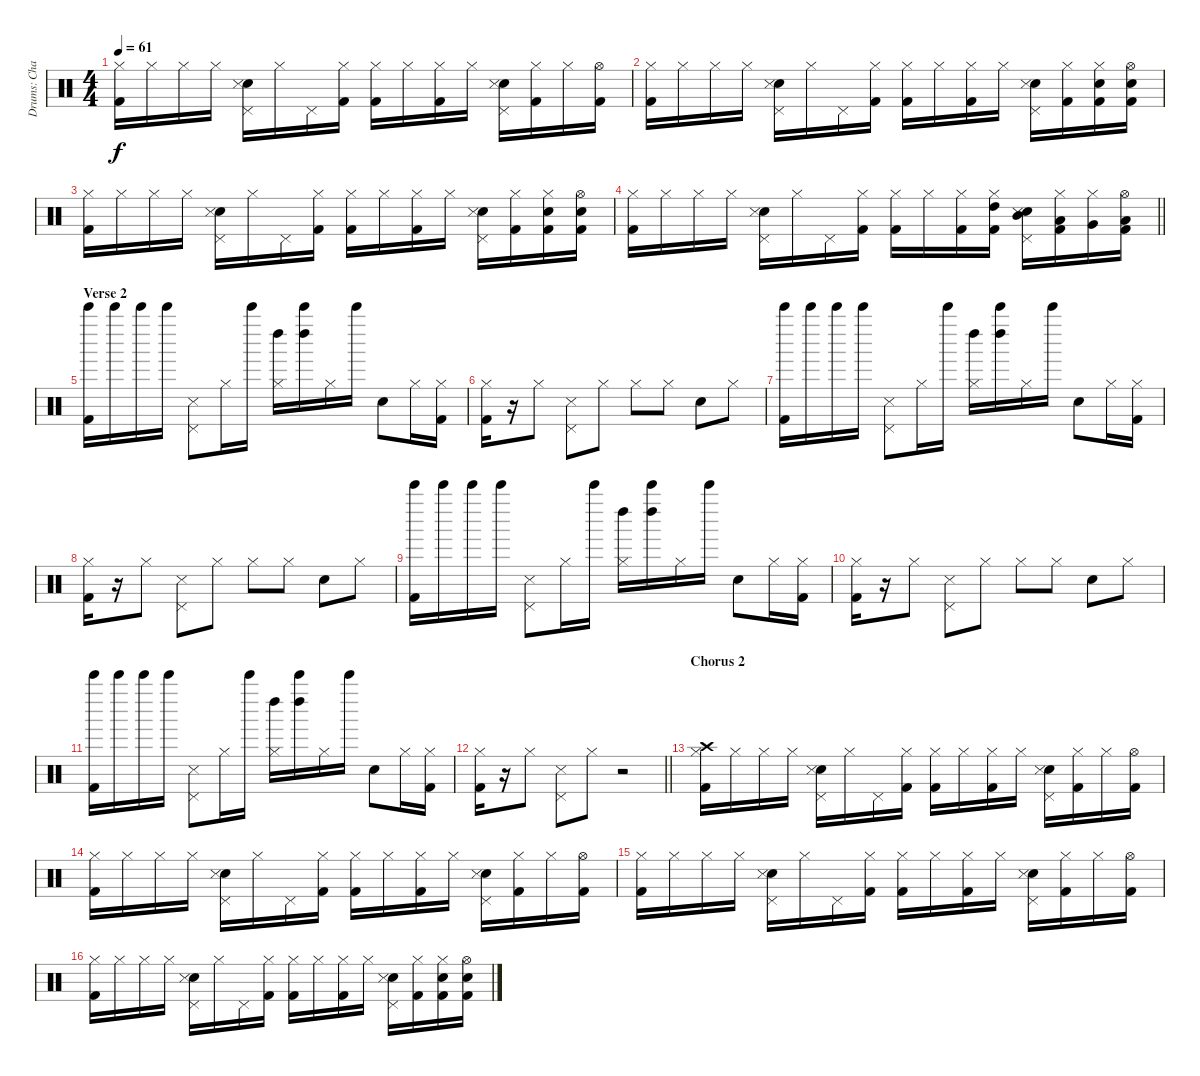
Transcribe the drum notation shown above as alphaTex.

\track ("Drums: Charlie Sierra" "Drums: Cha") {instrument percussion}
\staff {score}
\articulation defaults
\ts (4 4)
\tempo 61
\clef neutral
\ks c
("Hi-Hat (closed)" "Kick (hit) 2").16{dy f} "Hi-Hat (closed)".16 "Hi-Hat (closed)".16 "Hi-Hat (closed)".16 ("Pedal Hi-Hat (hit)" "Snare (hit) 2" "Snare (side stick) 3").16 "Hi-Hat (closed)".16 "Pedal Hi-Hat (hit)".16 ("Hi-Hat (closed)" "Kick (hit) 2").16 ("Hi-Hat (closed)" "Kick (hit) 2").16 "Hi-Hat (closed)".16 ("Hi-Hat (closed)" "Kick (hit) 2").16 "Hi-Hat (closed)".16 ("Pedal Hi-Hat (hit)" "Snare (hit) 2" "Snare (side stick) 3").16 ("Hi-Hat (closed)" "Kick (hit) 2").16 "Hi-Hat (closed)".16 ("Hi-Hat (open)" "Kick (hit) 2").16 |
("Hi-Hat (closed)" "Kick (hit) 2").16 "Hi-Hat (closed)".16 "Hi-Hat (closed)".16 "Hi-Hat (closed)".16 ("Pedal Hi-Hat (hit)" "Snare (hit) 2" "Snare (side stick) 3").16 "Hi-Hat (closed)".16 "Pedal Hi-Hat (hit)".16 ("Hi-Hat (closed)" "Kick (hit) 2").16 ("Hi-Hat (closed)" "Kick (hit) 2").16 "Hi-Hat (closed)".16 ("Hi-Hat (closed)" "Kick (hit) 2").16 "Hi-Hat (closed)".16 ("Pedal Hi-Hat (hit)" "Snare (hit) 2" "Snare (side stick) 3").16 ("Hi-Hat (closed)" "Kick (hit) 2").16 ("Hi-Hat (closed)" "Snare (hit) 2" "Kick (hit) 2").16 ("Hi-Hat (open)" "Snare (hit) 2" "Kick (hit) 2").16 |
("Hi-Hat (closed)" "Kick (hit) 2").16 "Hi-Hat (closed)".16 "Hi-Hat (closed)".16 "Hi-Hat (closed)".16 ("Pedal Hi-Hat (hit)" "Snare (hit) 2" "Snare (side stick) 3").16 "Hi-Hat (closed)".16 "Pedal Hi-Hat (hit)".16 ("Hi-Hat (closed)" "Kick (hit) 2").16 ("Hi-Hat (closed)" "Kick (hit) 2").16 "Hi-Hat (closed)".16 ("Hi-Hat (closed)" "Kick (hit) 2").16 "Hi-Hat (closed)".16 ("Pedal Hi-Hat (hit)" "Snare (hit) 2" "Snare (side stick) 3").16 ("Hi-Hat (closed)" "Kick (hit) 2").16 ("Hi-Hat (closed)" "Snare (hit) 2" "Kick (hit) 2").16 ("Hi-Hat (open)" "Snare (hit) 2" "Kick (hit) 2").16 |
\barLineRight lightlight
("Hi-Hat (closed)" "Kick (hit) 2").16 "Hi-Hat (closed)".16 "Hi-Hat (closed)".16 "Hi-Hat (closed)".16 ("Pedal Hi-Hat (hit)" "Snare (hit) 2" "Snare (side stick) 3").16 "Hi-Hat (closed)".16 "Pedal Hi-Hat (hit)".16 ("Hi-Hat (closed)" "Kick (hit) 2").16 ("Hi-Hat (closed)" "Kick (hit) 2").16 "Hi-Hat (closed)".16 ("Hi-Hat (closed)" "Kick (hit) 2").16 ("Hi-Hat (closed)" "High Tom (hit)" "Kick (hit) 2").16 ("Pedal Hi-Hat (hit)" "Snare (hit) 2" "Mid Tom (hit)" "Snare (side stick) 3").16 ("Hi-Hat (closed)" "Low Tom (hit)" "Kick (hit) 2").16 ("Hi-Hat (closed)" "Very Low Tom (hit)").16 ("Hi-Hat (open)" "Low Floor Tom (hit)" "Kick (hit) 2").16 |
\section ("" "Verse 2")
("Bell Tree (hit)" "Kick (hit) 2").16 "Bell Tree (hit)".16 "Bell Tree (hit)".16 "Bell Tree (hit)".16 ("Pedal Hi-Hat (hit)" "Snare (side stick) 3").8 "Hi-Hat (closed)".16 "Bell Tree (hit)".16 ("Hi-Hat (closed)" "Left Maraca (hit)").16 ("Bell Tree (hit)" "Left Maraca (hit)").16 "Hi-Hat (closed)".16 "Bell Tree (hit)".16 "Snare (hit) 2".8 "Hi-Hat (closed)".16 ("Hi-Hat (closed)" "Kick (hit) 2").16 |
("Hi-Hat (closed)" "Kick (hit) 2").16 r.16 "Hi-Hat (closed)".8 ("Pedal Hi-Hat (hit)" "Snare (side stick) 3").8 "Hi-Hat (closed)".8 "Hi-Hat (closed)".8 "Hi-Hat (closed)".8 "Snare (hit) 2".8 "Hi-Hat (closed)".8 |
("Bell Tree (hit)" "Kick (hit) 2").16 "Bell Tree (hit)".16 "Bell Tree (hit)".16 "Bell Tree (hit)".16 ("Pedal Hi-Hat (hit)" "Snare (side stick) 3").8 "Hi-Hat (closed)".16 "Bell Tree (hit)".16 ("Hi-Hat (closed)" "Left Maraca (hit)").16 ("Bell Tree (hit)" "Left Maraca (hit)").16 "Hi-Hat (closed)".16 "Bell Tree (hit)".16 "Snare (hit) 2".8 "Hi-Hat (closed)".16 ("Hi-Hat (closed)" "Kick (hit) 2").16 |
("Hi-Hat (closed)" "Kick (hit) 2").16 r.16 "Hi-Hat (closed)".8 ("Pedal Hi-Hat (hit)" "Snare (side stick) 3").8 "Hi-Hat (closed)".8 "Hi-Hat (closed)".8 "Hi-Hat (closed)".8 "Snare (hit) 2".8 "Hi-Hat (closed)".8 |
("Bell Tree (hit)" "Kick (hit) 2").16 "Bell Tree (hit)".16 "Bell Tree (hit)".16 "Bell Tree (hit)".16 ("Pedal Hi-Hat (hit)" "Snare (side stick) 3").8 "Hi-Hat (closed)".16 "Bell Tree (hit)".16 ("Hi-Hat (closed)" "Left Maraca (hit)").16 ("Bell Tree (hit)" "Left Maraca (hit)").16 "Hi-Hat (closed)".16 "Bell Tree (hit)".16 "Snare (hit) 2".8 "Hi-Hat (closed)".16 ("Hi-Hat (closed)" "Kick (hit) 2").16 |
("Hi-Hat (closed)" "Kick (hit) 2").16 r.16 "Hi-Hat (closed)".8 ("Pedal Hi-Hat (hit)" "Snare (side stick) 3").8 "Hi-Hat (closed)".8 "Hi-Hat (closed)".8 "Hi-Hat (closed)".8 "Snare (hit) 2".8 "Hi-Hat (closed)".8 |
("Bell Tree (hit)" "Kick (hit) 2").16 "Bell Tree (hit)".16 "Bell Tree (hit)".16 "Bell Tree (hit)".16 ("Pedal Hi-Hat (hit)" "Snare (side stick) 3").8 "Hi-Hat (closed)".16 "Bell Tree (hit)".16 ("Hi-Hat (closed)" "Left Maraca (hit)").16 ("Bell Tree (hit)" "Left Maraca (hit)").16 "Hi-Hat (closed)".16 "Bell Tree (hit)".16 "Snare (hit) 2".8 "Hi-Hat (closed)".16 ("Hi-Hat (closed)" "Kick (hit) 2").16 |
\barLineRight lightlight
("Hi-Hat (closed)" "Kick (hit) 2").16 r.16 "Hi-Hat (closed)".8 ("Pedal Hi-Hat (hit)" "Snare (side stick) 3").8 "Hi-Hat (closed)".8 r.2 |
\section ("" "Chorus 2")
("Crash high (hit)" "Hi-Hat (closed)" "Kick (hit) 2").16 "Hi-Hat (closed)".16 "Hi-Hat (closed)".16 "Hi-Hat (closed)".16 ("Pedal Hi-Hat (hit)" "Snare (hit) 2" "Snare (side stick) 3").16 "Hi-Hat (closed)".16 "Pedal Hi-Hat (hit)".16 ("Hi-Hat (closed)" "Kick (hit) 2").16 ("Hi-Hat (closed)" "Kick (hit) 2").16 "Hi-Hat (closed)".16 ("Hi-Hat (closed)" "Kick (hit) 2").16 "Hi-Hat (closed)".16 ("Pedal Hi-Hat (hit)" "Snare (hit) 2" "Snare (side stick) 3").16 ("Hi-Hat (closed)" "Kick (hit) 2").16 "Hi-Hat (closed)".16 ("Hi-Hat (open)" "Kick (hit) 2").16 |
("Hi-Hat (closed)" "Kick (hit) 2").16 "Hi-Hat (closed)".16 "Hi-Hat (closed)".16 "Hi-Hat (closed)".16 ("Pedal Hi-Hat (hit)" "Snare (hit) 2" "Snare (side stick) 3").16 "Hi-Hat (closed)".16 "Pedal Hi-Hat (hit)".16 ("Hi-Hat (closed)" "Kick (hit) 2").16 ("Hi-Hat (closed)" "Kick (hit) 2").16 "Hi-Hat (closed)".16 ("Hi-Hat (closed)" "Kick (hit) 2").16 "Hi-Hat (closed)".16 ("Pedal Hi-Hat (hit)" "Snare (hit) 2" "Snare (side stick) 3").16 ("Hi-Hat (closed)" "Kick (hit) 2").16 "Hi-Hat (closed)".16 ("Hi-Hat (open)" "Kick (hit) 2").16 |
("Hi-Hat (closed)" "Kick (hit) 2").16 "Hi-Hat (closed)".16 "Hi-Hat (closed)".16 "Hi-Hat (closed)".16 ("Pedal Hi-Hat (hit)" "Snare (hit) 2" "Snare (side stick) 3").16 "Hi-Hat (closed)".16 "Pedal Hi-Hat (hit)".16 ("Hi-Hat (closed)" "Kick (hit) 2").16 ("Hi-Hat (closed)" "Kick (hit) 2").16 "Hi-Hat (closed)".16 ("Hi-Hat (closed)" "Kick (hit) 2").16 "Hi-Hat (closed)".16 ("Pedal Hi-Hat (hit)" "Snare (hit) 2" "Snare (side stick) 3").16 ("Hi-Hat (closed)" "Kick (hit) 2").16 "Hi-Hat (closed)".16 ("Hi-Hat (open)" "Kick (hit) 2").16 |
("Hi-Hat (closed)" "Kick (hit) 2").16 "Hi-Hat (closed)".16 "Hi-Hat (closed)".16 "Hi-Hat (closed)".16 ("Pedal Hi-Hat (hit)" "Snare (hit) 2" "Snare (side stick) 3").16 "Hi-Hat (closed)".16 "Pedal Hi-Hat (hit)".16 ("Hi-Hat (closed)" "Kick (hit) 2").16 ("Hi-Hat (closed)" "Kick (hit) 2").16 "Hi-Hat (closed)".16 ("Hi-Hat (closed)" "Kick (hit) 2").16 "Hi-Hat (closed)".16 ("Pedal Hi-Hat (hit)" "Snare (hit) 2" "Snare (side stick) 3").16 ("Hi-Hat (closed)" "Kick (hit) 2").16 ("Hi-Hat (closed)" "Snare (hit) 2" "Kick (hit) 2").16 ("Hi-Hat (open)" "Snare (hit) 2" "Kick (hit) 2").16
